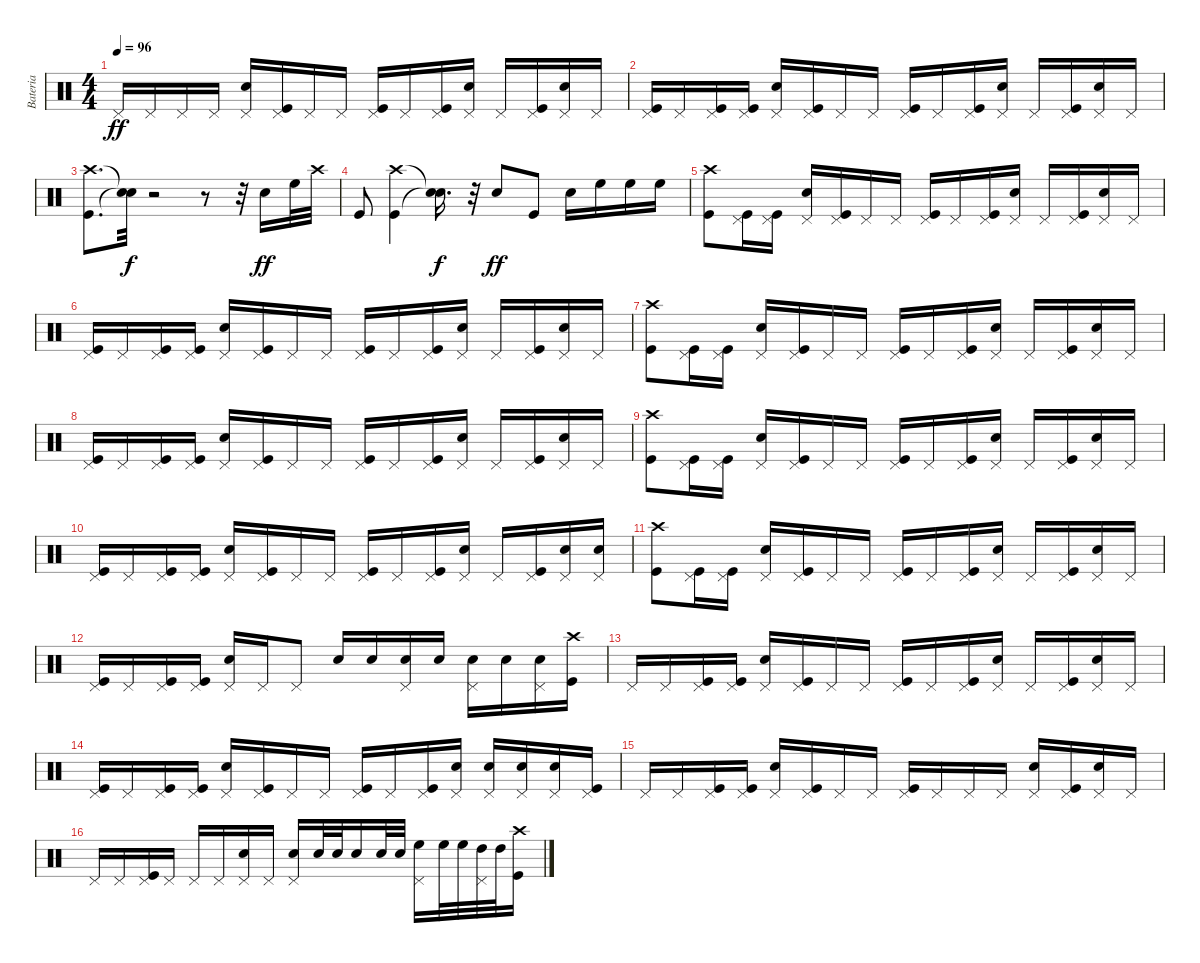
\track ("Bateria" "Bateria") {instrument percussion}
\staff {score}
\articulation defaults
\ts (4 4)
\tempo 96
\clef neutral
\ks c "Pedal Hi-Hat (hit)".16{dy ff} "Pedal Hi-Hat (hit)".16 "Pedal Hi-Hat (hit)".16 "Pedal Hi-Hat (hit)".16
("Snare (hit) 2" "Pedal Hi-Hat (hit)").16 ("Kick (hit)" "Pedal Hi-Hat (hit)").16 "Pedal Hi-Hat (hit)".16 "Pedal Hi-Hat (hit)".16 ("Kick (hit)" "Pedal Hi-Hat (hit)").16 "Pedal Hi-Hat (hit)".16 ("Kick (hit)" "Pedal Hi-Hat (hit)").16 ("Snare (hit) 2" "Pedal Hi-Hat (hit)").16 "Pedal Hi-Hat (hit)".16 ("Kick (hit)" "Pedal Hi-Hat (hit)").16 ("Snare (hit) 2" "Pedal Hi-Hat (hit)").16 "Pedal Hi-Hat (hit)".16 |
("Kick (hit)" "Pedal Hi-Hat (hit)").16 "Pedal Hi-Hat (hit)".16 ("Kick (hit)" "Pedal Hi-Hat (hit)").16 ("Kick (hit)" "Pedal Hi-Hat (hit)").16 ("Snare (hit) 2" "Pedal Hi-Hat (hit)").16 ("Kick (hit)" "Pedal Hi-Hat (hit)").16 "Pedal Hi-Hat (hit)".16 "Pedal Hi-Hat (hit)".16 ("Kick (hit)" "Pedal Hi-Hat (hit)").16 "Pedal Hi-Hat (hit)".16 ("Kick (hit)" "Pedal Hi-Hat (hit)").16 ("Snare (hit) 2" "Pedal Hi-Hat (hit)").16 "Pedal Hi-Hat (hit)".16 ("Kick (hit)" "Pedal Hi-Hat (hit)").16 ("Snare (hit) 2" "Pedal Hi-Hat (hit)").16 "Pedal Hi-Hat (hit)".16 |
("Kick (hit)" "Crash high (hit)").8{d} ("Snare (hit)"{t} "Snare (hit)"{t}).32{dy f} r.2 r.8 r.32 "Snare (hit) 2".16{dy ff} "High Floor Tom (hit)".32 "Crash high (hit)".32 |
"Kick (hit)".8 ("Kick (hit)" "Crash high (hit)").4 ("Snare (hit)"{t} "Snare (hit)"{t}).16{d dy f} r.32 "Snare (hit) 2".8{dy ff} "Kick (hit)".8 "Snare (hit) 2".16 "High Floor Tom (hit)".16 "High Floor Tom (hit)".16 "High Floor Tom (hit)".16 |
("Kick (hit)" "Crash high (hit)").8 ("Kick (hit)" "Pedal Hi-Hat (hit)").16 ("Kick (hit)" "Pedal Hi-Hat (hit)").16 ("Snare (hit) 2" "Pedal Hi-Hat (hit)").16 ("Kick (hit)" "Pedal Hi-Hat (hit)").16 "Pedal Hi-Hat (hit)".16 "Pedal Hi-Hat (hit)".16 ("Kick (hit)" "Pedal Hi-Hat (hit)").16 "Pedal Hi-Hat (hit)".16 ("Kick (hit)" "Pedal Hi-Hat (hit)").16 ("Snare (hit) 2" "Pedal Hi-Hat (hit)").16 "Pedal Hi-Hat (hit)".16 ("Kick (hit)" "Pedal Hi-Hat (hit)").16 ("Snare (hit) 2" "Pedal Hi-Hat (hit)").16 "Pedal Hi-Hat (hit)".16 |
("Kick (hit)" "Pedal Hi-Hat (hit)").16 "Pedal Hi-Hat (hit)".16 ("Kick (hit)" "Pedal Hi-Hat (hit)").16 ("Kick (hit)" "Pedal Hi-Hat (hit)").16 ("Snare (hit) 2" "Pedal Hi-Hat (hit)").16 ("Kick (hit)" "Pedal Hi-Hat (hit)").16 "Pedal Hi-Hat (hit)".16 "Pedal Hi-Hat (hit)".16 ("Kick (hit)" "Pedal Hi-Hat (hit)").16 "Pedal Hi-Hat (hit)".16 ("Kick (hit)" "Pedal Hi-Hat (hit)").16 ("Snare (hit) 2" "Pedal Hi-Hat (hit)").16 "Pedal Hi-Hat (hit)".16 ("Kick (hit)" "Pedal Hi-Hat (hit)").16 ("Snare (hit) 2" "Pedal Hi-Hat (hit)").16 "Pedal Hi-Hat (hit)".16 |
("Kick (hit)" "Crash high (hit)").8 ("Kick (hit)" "Pedal Hi-Hat (hit)").16 ("Kick (hit)" "Pedal Hi-Hat (hit)").16 ("Snare (hit) 2" "Pedal Hi-Hat (hit)").16 ("Kick (hit)" "Pedal Hi-Hat (hit)").16 "Pedal Hi-Hat (hit)".16 "Pedal Hi-Hat (hit)".16 ("Kick (hit)" "Pedal Hi-Hat (hit)").16 "Pedal Hi-Hat (hit)".16 ("Kick (hit)" "Pedal Hi-Hat (hit)").16 ("Snare (hit) 2" "Pedal Hi-Hat (hit)").16 "Pedal Hi-Hat (hit)".16 ("Kick (hit)" "Pedal Hi-Hat (hit)").16 ("Snare (hit) 2" "Pedal Hi-Hat (hit)").16 "Pedal Hi-Hat (hit)".16 |
("Kick (hit)" "Pedal Hi-Hat (hit)").16 "Pedal Hi-Hat (hit)".16 ("Kick (hit)" "Pedal Hi-Hat (hit)").16 ("Kick (hit)" "Pedal Hi-Hat (hit)").16 ("Snare (hit) 2" "Pedal Hi-Hat (hit)").16 ("Kick (hit)" "Pedal Hi-Hat (hit)").16 "Pedal Hi-Hat (hit)".16 "Pedal Hi-Hat (hit)".16 ("Kick (hit)" "Pedal Hi-Hat (hit)").16 "Pedal Hi-Hat (hit)".16 ("Kick (hit)" "Pedal Hi-Hat (hit)").16 ("Snare (hit) 2" "Pedal Hi-Hat (hit)").16 "Pedal Hi-Hat (hit)".16 ("Kick (hit)" "Pedal Hi-Hat (hit)").16 ("Snare (hit) 2" "Pedal Hi-Hat (hit)").16 "Pedal Hi-Hat (hit)".16 |
("Kick (hit)" "Crash high (hit)").8 ("Kick (hit)" "Pedal Hi-Hat (hit)").16 ("Kick (hit)" "Pedal Hi-Hat (hit)").16 ("Snare (hit) 2" "Pedal Hi-Hat (hit)").16 ("Kick (hit)" "Pedal Hi-Hat (hit)").16 "Pedal Hi-Hat (hit)".16 "Pedal Hi-Hat (hit)".16 ("Kick (hit)" "Pedal Hi-Hat (hit)").16 "Pedal Hi-Hat (hit)".16 ("Kick (hit)" "Pedal Hi-Hat (hit)").16 ("Snare (hit) 2" "Pedal Hi-Hat (hit)").16 "Pedal Hi-Hat (hit)".16 ("Kick (hit)" "Pedal Hi-Hat (hit)").16 ("Snare (hit) 2" "Pedal Hi-Hat (hit)").16 "Pedal Hi-Hat (hit)".16 |
("Kick (hit)" "Pedal Hi-Hat (hit)").16 "Pedal Hi-Hat (hit)".16 ("Kick (hit)" "Pedal Hi-Hat (hit)").16 ("Kick (hit)" "Pedal Hi-Hat (hit)").16 ("Snare (hit) 2" "Pedal Hi-Hat (hit)").16 ("Kick (hit)" "Pedal Hi-Hat (hit)").16 "Pedal Hi-Hat (hit)".16 "Pedal Hi-Hat (hit)".16 ("Kick (hit)" "Pedal Hi-Hat (hit)").16 "Pedal Hi-Hat (hit)".16 ("Kick (hit)" "Pedal Hi-Hat (hit)").16 ("Snare (hit) 2" "Pedal Hi-Hat (hit)").16 "Pedal Hi-Hat (hit)".16 ("Kick (hit)" "Pedal Hi-Hat (hit)").16 ("Snare (hit) 2" "Pedal Hi-Hat (hit)").16 ("Snare (hit) 2" "Pedal Hi-Hat (hit)").16 |
("Kick (hit)" "Crash high (hit)").8 ("Kick (hit)" "Pedal Hi-Hat (hit)").16 ("Kick (hit)" "Pedal Hi-Hat (hit)").16 ("Snare (hit) 2" "Pedal Hi-Hat (hit)").16 ("Kick (hit)" "Pedal Hi-Hat (hit)").16 "Pedal Hi-Hat (hit)".16 "Pedal Hi-Hat (hit)".16 ("Kick (hit)" "Pedal Hi-Hat (hit)").16 "Pedal Hi-Hat (hit)".16 ("Kick (hit)" "Pedal Hi-Hat (hit)").16 ("Snare (hit) 2" "Pedal Hi-Hat (hit)").16 "Pedal Hi-Hat (hit)".16 ("Kick (hit)" "Pedal Hi-Hat (hit)").16 ("Snare (hit) 2" "Pedal Hi-Hat (hit)").16 "Pedal Hi-Hat (hit)".16 |
("Kick (hit)" "Pedal Hi-Hat (hit)").16 "Pedal Hi-Hat (hit)".16 ("Kick (hit)" "Pedal Hi-Hat (hit)").16 ("Kick (hit)" "Pedal Hi-Hat (hit)").16 ("Snare (hit) 2" "Pedal Hi-Hat (hit)").16 "Pedal Hi-Hat (hit)".16 "Pedal Hi-Hat (hit)".8 "Snare (hit) 2".16 "Snare (hit) 2".16 ("Snare (hit) 2" "Pedal Hi-Hat (hit)").16 "Snare (hit) 2".16 ("Snare (hit) 2" "Pedal Hi-Hat (hit)").16 "Snare (hit) 2".16 ("Snare (hit) 2" "Pedal Hi-Hat (hit)").16 ("Kick (hit)" "Crash high (hit)").16 |
"Pedal Hi-Hat (hit)".16 "Pedal Hi-Hat (hit)".16 ("Kick (hit)" "Pedal Hi-Hat (hit)").16 ("Kick (hit)" "Pedal Hi-Hat (hit)").16 ("Snare (hit) 2" "Pedal Hi-Hat (hit)").16 ("Kick (hit)" "Pedal Hi-Hat (hit)").16 "Pedal Hi-Hat (hit)".16 "Pedal Hi-Hat (hit)".16 ("Kick (hit)" "Pedal Hi-Hat (hit)").16 "Pedal Hi-Hat (hit)".16 ("Kick (hit)" "Pedal Hi-Hat (hit)").16 ("Snare (hit) 2" "Pedal Hi-Hat (hit)").16 "Pedal Hi-Hat (hit)".16 ("Kick (hit)" "Pedal Hi-Hat (hit)").16 ("Snare (hit) 2" "Pedal Hi-Hat (hit)").16 "Pedal Hi-Hat (hit)".16 |
("Kick (hit)" "Pedal Hi-Hat (hit)").16 "Pedal Hi-Hat (hit)".16 ("Kick (hit)" "Pedal Hi-Hat (hit)").16 ("Kick (hit)" "Pedal Hi-Hat (hit)").16 ("Snare (hit) 2" "Pedal Hi-Hat (hit)").16 ("Kick (hit)" "Pedal Hi-Hat (hit)").16 "Pedal Hi-Hat (hit)".16 "Pedal Hi-Hat (hit)".16 ("Kick (hit)" "Pedal Hi-Hat (hit)").16 "Pedal Hi-Hat (hit)".16 ("Kick (hit)" "Pedal Hi-Hat (hit)").16 ("Snare (hit) 2" "Pedal Hi-Hat (hit)").16 ("Snare (hit) 2" "Pedal Hi-Hat (hit)").16 ("Snare (hit) 2" "Pedal Hi-Hat (hit)").16 ("Snare (hit) 2" "Pedal Hi-Hat (hit)").16 ("Kick (hit)" "Pedal Hi-Hat (hit)").16 |
"Pedal Hi-Hat (hit)".16 "Pedal Hi-Hat (hit)".16 ("Kick (hit)" "Pedal Hi-Hat (hit)").16 ("Kick (hit)" "Pedal Hi-Hat (hit)").16 ("Snare (hit) 2" "Pedal Hi-Hat (hit)").16 ("Kick (hit)" "Pedal Hi-Hat (hit)").16 "Pedal Hi-Hat (hit)".16 "Pedal Hi-Hat (hit)".16 ("Kick (hit)" "Pedal Hi-Hat (hit)").16 "Pedal Hi-Hat (hit)".16 "Pedal Hi-Hat (hit)".16 "Pedal Hi-Hat (hit)".16 ("Snare (hit) 2" "Pedal Hi-Hat (hit)").16 ("Kick (hit)" "Pedal Hi-Hat (hit)").16 ("Snare (hit) 2" "Pedal Hi-Hat (hit)").16 "Pedal Hi-Hat (hit)".16 |
"Pedal Hi-Hat (hit)".16 "Pedal Hi-Hat (hit)".16 ("Kick (hit)" "Pedal Hi-Hat (hit)").16 "Pedal Hi-Hat (hit)".16 "Pedal Hi-Hat (hit)".16 "Pedal Hi-Hat (hit)".16 ("Snare (hit) 2" "Pedal Hi-Hat (hit)").16 "Pedal Hi-Hat (hit)".16 ("Snare (hit) 2" "Pedal Hi-Hat (hit)").16 "Snare (hit) 2".32 "Snare (hit) 2".32 "Snare (hit) 2".16 "Snare (hit) 2".32 "Snare (hit) 2".32 ("Pedal Hi-Hat (hit)" "High Floor Tom (hit)").16 "High Floor Tom (hit)".32 "High Floor Tom (hit)".32 ("Pedal Hi-Hat (hit)" "High Tom (hit)").32 "High Tom (hit)".32 ("Kick (hit)" "Crash high (hit)").16
